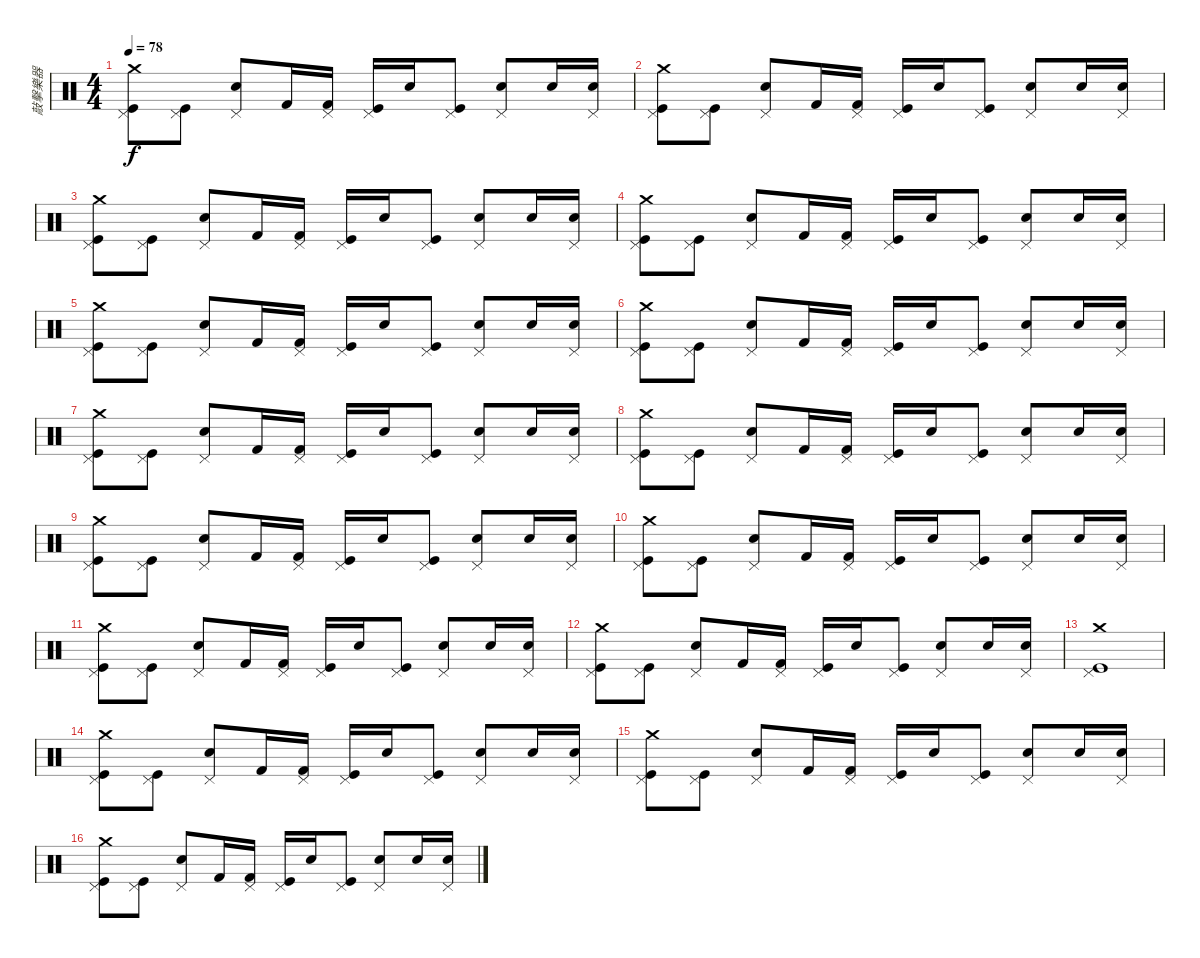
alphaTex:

\track ("敲擊樂器" "敲擊樂器") {instrument percussion}
\staff {score}
\articulation defaults
\ts (4 4)
\tempo 78
\clef neutral
\ks c
("Pedal Hi-Hat (hit)" "Kick (hit)" "Crash medium (hit)").8{dy f} ("Pedal Hi-Hat (hit)" "Kick (hit)").8 ("Pedal Hi-Hat (hit)" "Electric Snare (hit)").8 "Kick (hit) 2".16 ("Pedal Hi-Hat (hit)" "Kick (hit) 2").16 ("Pedal Hi-Hat (hit)" "Kick (hit)").16 "Electric Snare (hit)".16 ("Pedal Hi-Hat (hit)" "Kick (hit)").8 ("Pedal Hi-Hat (hit)" "Electric Snare (hit)").8 "Electric Snare (hit)".16 ("Pedal Hi-Hat (hit)" "Electric Snare (hit)").16 |
("Pedal Hi-Hat (hit)" "Kick (hit)" "Crash medium (hit)").8 ("Pedal Hi-Hat (hit)" "Kick (hit)").8 ("Pedal Hi-Hat (hit)" "Electric Snare (hit)").8 "Kick (hit) 2".16 ("Pedal Hi-Hat (hit)" "Kick (hit) 2").16 ("Pedal Hi-Hat (hit)" "Kick (hit)").16 "Electric Snare (hit)".16 ("Pedal Hi-Hat (hit)" "Kick (hit)").8 ("Pedal Hi-Hat (hit)" "Electric Snare (hit)").8 "Electric Snare (hit)".16 ("Pedal Hi-Hat (hit)" "Electric Snare (hit)").16 |
("Pedal Hi-Hat (hit)" "Kick (hit)" "Crash medium (hit)").8 ("Pedal Hi-Hat (hit)" "Kick (hit)").8 ("Pedal Hi-Hat (hit)" "Electric Snare (hit)").8 "Kick (hit) 2".16 ("Pedal Hi-Hat (hit)" "Kick (hit) 2").16 ("Pedal Hi-Hat (hit)" "Kick (hit)").16 "Electric Snare (hit)".16 ("Pedal Hi-Hat (hit)" "Kick (hit)").8 ("Pedal Hi-Hat (hit)" "Electric Snare (hit)").8 "Electric Snare (hit)".16 ("Pedal Hi-Hat (hit)" "Electric Snare (hit)").16 |
("Pedal Hi-Hat (hit)" "Kick (hit)" "Crash medium (hit)").8 ("Pedal Hi-Hat (hit)" "Kick (hit)").8 ("Pedal Hi-Hat (hit)" "Electric Snare (hit)").8 "Kick (hit) 2".16 ("Pedal Hi-Hat (hit)" "Kick (hit) 2").16 ("Pedal Hi-Hat (hit)" "Kick (hit)").16 "Electric Snare (hit)".16 ("Pedal Hi-Hat (hit)" "Kick (hit)").8 ("Pedal Hi-Hat (hit)" "Electric Snare (hit)").8 "Electric Snare (hit)".16 ("Pedal Hi-Hat (hit)" "Electric Snare (hit)").16 |
("Pedal Hi-Hat (hit)" "Kick (hit)" "Crash medium (hit)").8 ("Pedal Hi-Hat (hit)" "Kick (hit)").8 ("Pedal Hi-Hat (hit)" "Electric Snare (hit)").8 "Kick (hit) 2".16 ("Pedal Hi-Hat (hit)" "Kick (hit) 2").16 ("Pedal Hi-Hat (hit)" "Kick (hit)").16 "Electric Snare (hit)".16 ("Pedal Hi-Hat (hit)" "Kick (hit)").8 ("Pedal Hi-Hat (hit)" "Electric Snare (hit)").8 "Electric Snare (hit)".16 ("Pedal Hi-Hat (hit)" "Electric Snare (hit)").16 |
("Pedal Hi-Hat (hit)" "Kick (hit)" "Crash medium (hit)").8 ("Pedal Hi-Hat (hit)" "Kick (hit)").8 ("Pedal Hi-Hat (hit)" "Electric Snare (hit)").8 "Kick (hit) 2".16 ("Pedal Hi-Hat (hit)" "Kick (hit) 2").16 ("Pedal Hi-Hat (hit)" "Kick (hit)").16 "Electric Snare (hit)".16 ("Pedal Hi-Hat (hit)" "Kick (hit)").8 ("Pedal Hi-Hat (hit)" "Electric Snare (hit)").8 "Electric Snare (hit)".16 ("Pedal Hi-Hat (hit)" "Electric Snare (hit)").16 |
("Pedal Hi-Hat (hit)" "Kick (hit)" "Crash medium (hit)").8 ("Pedal Hi-Hat (hit)" "Kick (hit)").8 ("Pedal Hi-Hat (hit)" "Electric Snare (hit)").8 "Kick (hit) 2".16 ("Pedal Hi-Hat (hit)" "Kick (hit) 2").16 ("Pedal Hi-Hat (hit)" "Kick (hit)").16 "Electric Snare (hit)".16 ("Pedal Hi-Hat (hit)" "Kick (hit)").8 ("Pedal Hi-Hat (hit)" "Electric Snare (hit)").8 "Electric Snare (hit)".16 ("Pedal Hi-Hat (hit)" "Electric Snare (hit)").16 |
("Pedal Hi-Hat (hit)" "Kick (hit)" "Crash medium (hit)").8 ("Pedal Hi-Hat (hit)" "Kick (hit)").8 ("Pedal Hi-Hat (hit)" "Electric Snare (hit)").8 "Kick (hit) 2".16 ("Pedal Hi-Hat (hit)" "Kick (hit) 2").16 ("Pedal Hi-Hat (hit)" "Kick (hit)").16 "Electric Snare (hit)".16 ("Pedal Hi-Hat (hit)" "Kick (hit)").8 ("Pedal Hi-Hat (hit)" "Electric Snare (hit)").8 "Electric Snare (hit)".16 ("Pedal Hi-Hat (hit)" "Electric Snare (hit)").16 |
("Pedal Hi-Hat (hit)" "Kick (hit)" "Crash medium (hit)").8 ("Pedal Hi-Hat (hit)" "Kick (hit)").8 ("Pedal Hi-Hat (hit)" "Electric Snare (hit)").8 "Kick (hit) 2".16 ("Pedal Hi-Hat (hit)" "Kick (hit) 2").16 ("Pedal Hi-Hat (hit)" "Kick (hit)").16 "Electric Snare (hit)".16 ("Pedal Hi-Hat (hit)" "Kick (hit)").8 ("Pedal Hi-Hat (hit)" "Electric Snare (hit)").8 "Electric Snare (hit)".16 ("Pedal Hi-Hat (hit)" "Electric Snare (hit)").16 |
("Pedal Hi-Hat (hit)" "Kick (hit)" "Crash medium (hit)").8 ("Pedal Hi-Hat (hit)" "Kick (hit)").8 ("Pedal Hi-Hat (hit)" "Electric Snare (hit)").8 "Kick (hit) 2".16 ("Pedal Hi-Hat (hit)" "Kick (hit) 2").16 ("Pedal Hi-Hat (hit)" "Kick (hit)").16 "Electric Snare (hit)".16 ("Pedal Hi-Hat (hit)" "Kick (hit)").8 ("Pedal Hi-Hat (hit)" "Electric Snare (hit)").8 "Electric Snare (hit)".16 ("Pedal Hi-Hat (hit)" "Electric Snare (hit)").16 |
("Pedal Hi-Hat (hit)" "Kick (hit)" "Crash medium (hit)").8 ("Pedal Hi-Hat (hit)" "Kick (hit)").8 ("Pedal Hi-Hat (hit)" "Electric Snare (hit)").8 "Kick (hit) 2".16 ("Pedal Hi-Hat (hit)" "Kick (hit) 2").16 ("Pedal Hi-Hat (hit)" "Kick (hit)").16 "Electric Snare (hit)".16 ("Pedal Hi-Hat (hit)" "Kick (hit)").8 ("Pedal Hi-Hat (hit)" "Electric Snare (hit)").8 "Electric Snare (hit)".16 ("Pedal Hi-Hat (hit)" "Electric Snare (hit)").16 |
("Pedal Hi-Hat (hit)" "Kick (hit)" "Crash medium (hit)").8 ("Pedal Hi-Hat (hit)" "Kick (hit)").8 ("Pedal Hi-Hat (hit)" "Electric Snare (hit)").8 "Kick (hit) 2".16 ("Pedal Hi-Hat (hit)" "Kick (hit) 2").16 ("Pedal Hi-Hat (hit)" "Kick (hit)").16 "Electric Snare (hit)".16 ("Pedal Hi-Hat (hit)" "Kick (hit)").8 ("Pedal Hi-Hat (hit)" "Electric Snare (hit)").8 "Electric Snare (hit)".16 ("Pedal Hi-Hat (hit)" "Electric Snare (hit)").16 |
("Pedal Hi-Hat (hit)" "Kick (hit)" "Crash medium (hit)").1 |
("Pedal Hi-Hat (hit)" "Kick (hit)" "Crash medium (hit)").8 ("Pedal Hi-Hat (hit)" "Kick (hit)").8 ("Pedal Hi-Hat (hit)" "Electric Snare (hit)").8 "Kick (hit) 2".16 ("Pedal Hi-Hat (hit)" "Kick (hit) 2").16 ("Pedal Hi-Hat (hit)" "Kick (hit)").16 "Electric Snare (hit)".16 ("Pedal Hi-Hat (hit)" "Kick (hit)").8 ("Pedal Hi-Hat (hit)" "Electric Snare (hit)").8 "Electric Snare (hit)".16 ("Pedal Hi-Hat (hit)" "Electric Snare (hit)").16 |
("Pedal Hi-Hat (hit)" "Kick (hit)" "Crash medium (hit)").8 ("Pedal Hi-Hat (hit)" "Kick (hit)").8 ("Pedal Hi-Hat (hit)" "Electric Snare (hit)").8 "Kick (hit) 2".16 ("Pedal Hi-Hat (hit)" "Kick (hit) 2").16 ("Pedal Hi-Hat (hit)" "Kick (hit)").16 "Electric Snare (hit)".16 ("Pedal Hi-Hat (hit)" "Kick (hit)").8 ("Pedal Hi-Hat (hit)" "Electric Snare (hit)").8 "Electric Snare (hit)".16 ("Pedal Hi-Hat (hit)" "Electric Snare (hit)").16 |
("Pedal Hi-Hat (hit)" "Kick (hit)" "Crash medium (hit)").8 ("Pedal Hi-Hat (hit)" "Kick (hit)").8 ("Pedal Hi-Hat (hit)" "Electric Snare (hit)").8 "Kick (hit) 2".16 ("Pedal Hi-Hat (hit)" "Kick (hit) 2").16 ("Pedal Hi-Hat (hit)" "Kick (hit)").16 "Electric Snare (hit)".16 ("Pedal Hi-Hat (hit)" "Kick (hit)").8 ("Pedal Hi-Hat (hit)" "Electric Snare (hit)").8 "Electric Snare (hit)".16 ("Pedal Hi-Hat (hit)" "Electric Snare (hit)").16
